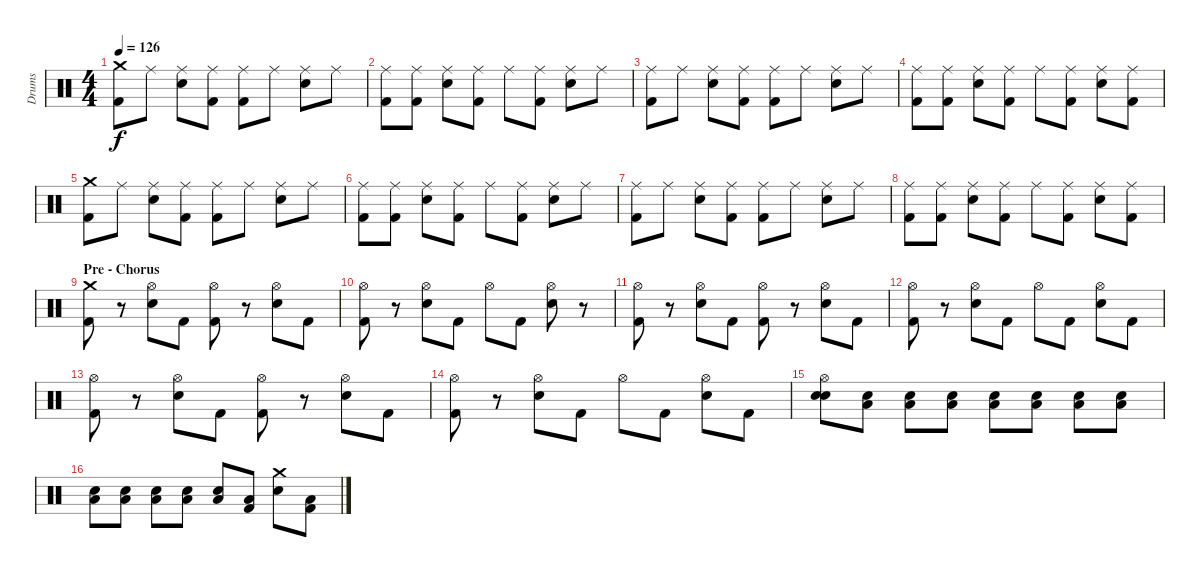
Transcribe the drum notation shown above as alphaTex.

\track ("Drums" "Drums") {instrument percussion}
\staff {score}
\articulation defaults
\ts (4 4)
\tempo 126
\clef neutral
\ks c
("Crash medium (hit)" "Kick (hit) 2").8{dy f} "Ride (middle)".8 ("Ride (middle)" "Snare (hit) 2").8 ("Ride (middle)" "Kick (hit) 2").8 ("Ride (middle)" "Kick (hit) 2").8 "Ride (middle)".8 ("Ride (middle)" "Snare (hit) 2").8 "Ride (middle)".8 |
("Ride (middle)" "Kick (hit) 2").8 ("Ride (middle)" "Kick (hit) 2").8 ("Ride (middle)" "Snare (hit) 2").8 ("Ride (middle)" "Kick (hit) 2").8 "Ride (middle)".8 ("Ride (middle)" "Kick (hit) 2").8 ("Ride (middle)" "Snare (hit) 2").8 "Ride (middle)".8 |
("Ride (middle)" "Kick (hit) 2").8 "Ride (middle)".8 ("Ride (middle)" "Snare (hit) 2").8 ("Ride (middle)" "Kick (hit) 2").8 ("Ride (middle)" "Kick (hit) 2").8 "Ride (middle)".8 ("Ride (middle)" "Snare (hit) 2").8 "Ride (middle)".8 |
("Ride (middle)" "Kick (hit) 2").8 ("Ride (middle)" "Kick (hit) 2").8 ("Ride (middle)" "Snare (hit) 2").8 ("Ride (middle)" "Kick (hit) 2").8 "Ride (middle)".8 ("Ride (middle)" "Kick (hit) 2").8 ("Ride (middle)" "Snare (hit) 2").8 ("Ride (middle)" "Kick (hit) 2").8 |
("Crash medium (hit)" "Kick (hit) 2").8 "Ride (middle)".8 ("Ride (middle)" "Snare (hit) 2").8 ("Ride (middle)" "Kick (hit) 2").8 ("Ride (middle)" "Kick (hit) 2").8 "Ride (middle)".8 ("Ride (middle)" "Snare (hit) 2").8 "Ride (middle)".8 |
("Ride (middle)" "Kick (hit) 2").8 ("Ride (middle)" "Kick (hit) 2").8 ("Ride (middle)" "Snare (hit) 2").8 ("Ride (middle)" "Kick (hit) 2").8 "Ride (middle)".8 ("Ride (middle)" "Kick (hit) 2").8 ("Ride (middle)" "Snare (hit) 2").8 "Ride (middle)".8 |
("Ride (middle)" "Kick (hit) 2").8 "Ride (middle)".8 ("Ride (middle)" "Snare (hit) 2").8 ("Ride (middle)" "Kick (hit) 2").8 ("Ride (middle)" "Kick (hit) 2").8 "Ride (middle)".8 ("Ride (middle)" "Snare (hit) 2").8 "Ride (middle)".8 |
("Ride (middle)" "Kick (hit) 2").8 ("Ride (middle)" "Kick (hit) 2").8 ("Ride (middle)" "Snare (hit) 2").8 ("Ride (middle)" "Kick (hit) 2").8 "Ride (middle)".8 ("Ride (middle)" "Kick (hit) 2").8 ("Ride (middle)" "Snare (hit) 2").8 ("Ride (middle)" "Kick (hit) 2").8 |
\section ("" "Pre - Chorus")
("Crash medium (hit)" "Kick (hit) 2").8 r.8 ("Hi-Hat (open)" "Snare (hit) 2").8 "Kick (hit) 2".8 ("Hi-Hat (open)" "Kick (hit) 2").8 r.8 ("Hi-Hat (open)" "Snare (hit) 2").8 "Kick (hit) 2".8 |
("Hi-Hat (open)" "Kick (hit) 2").8 r.8 ("Hi-Hat (open)" "Snare (hit) 2").8 "Kick (hit) 2".8 "Hi-Hat (open)".8 "Kick (hit) 2".8 ("Hi-Hat (open)" "Snare (hit) 2").8 r.8 |
("Hi-Hat (open)" "Kick (hit) 2").8 r.8 ("Hi-Hat (open)" "Snare (hit) 2").8 "Kick (hit) 2".8 ("Hi-Hat (open)" "Kick (hit) 2").8 r.8 ("Hi-Hat (open)" "Snare (hit) 2").8 "Kick (hit) 2".8 |
("Hi-Hat (open)" "Kick (hit) 2").8 r.8 ("Hi-Hat (open)" "Snare (hit) 2").8 "Kick (hit) 2".8 "Hi-Hat (open)".8 "Kick (hit) 2".8 ("Hi-Hat (open)" "Snare (hit) 2").8 "Kick (hit) 2".8 |
("Hi-Hat (open)" "Kick (hit) 2").8 r.8 ("Hi-Hat (open)" "Snare (hit) 2").8 "Kick (hit) 2".8 ("Hi-Hat (open)" "Kick (hit) 2").8 r.8 ("Hi-Hat (open)" "Snare (hit) 2").8 "Kick (hit) 2".8 |
("Hi-Hat (open)" "Kick (hit) 2").8 r.8 ("Hi-Hat (open)" "Snare (hit) 2").8 "Kick (hit) 2".8 "Hi-Hat (open)".8 "Kick (hit) 2".8 ("Hi-Hat (open)" "Snare (hit) 2").8 "Kick (hit) 2".8 |
("Hi-Hat (open)" "Snare (hit) 2" "Electric Snare (hit)").8 ("Snare (hit) 2" "Low Tom (hit)").8{volume 7} ("Snare (hit) 2" "Low Tom (hit)").8{volume 16} ("Snare (hit) 2" "Low Tom (hit)").8 ("Snare (hit) 2" "Low Tom (hit)").8 ("Snare (hit) 2" "Low Tom (hit)").8 ("Snare (hit) 2" "Low Tom (hit)").8 ("Snare (hit) 2" "Low Tom (hit)").8 |
("Snare (hit) 2" "Low Tom (hit)").8 ("Snare (hit) 2" "Low Tom (hit)").8 ("Snare (hit) 2" "Low Tom (hit)").8 ("Snare (hit) 2" "Low Tom (hit)").8 ("Snare (hit) 2" "Low Tom (hit)").8 ("Kick (hit) 2" "Low Tom (hit)").8 ("Crash medium (hit)" "Snare (hit) 2").8 ("Kick (hit) 2" "Low Tom (hit)").8
